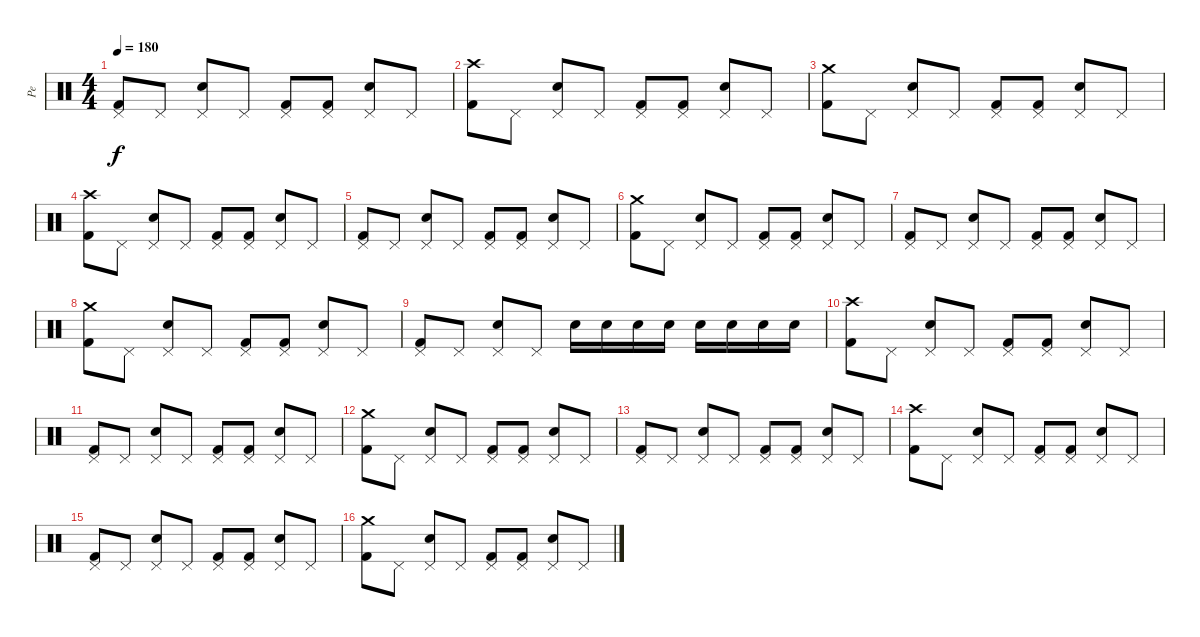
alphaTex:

\track ("Pe" "Pe") {instrument percussion}
\staff {score}
\articulation defaults
\ts (4 4)
\tempo 180
\clef neutral
\ks c
("Pedal Hi-Hat (hit)" "Kick (hit) 2").8{dy f} "Pedal Hi-Hat (hit)".8 ("Pedal Hi-Hat (hit)" "Electric Snare (hit)").8 "Pedal Hi-Hat (hit)".8 ("Pedal Hi-Hat (hit)" "Kick (hit) 2").8 ("Pedal Hi-Hat (hit)" "Kick (hit) 2").8 ("Pedal Hi-Hat (hit)" "Electric Snare (hit)").8 "Pedal Hi-Hat (hit)".8 |
("Crash high (hit)" "Kick (hit) 2").8 "Pedal Hi-Hat (hit)".8 ("Pedal Hi-Hat (hit)" "Electric Snare (hit)").8 "Pedal Hi-Hat (hit)".8 ("Pedal Hi-Hat (hit)" "Kick (hit) 2").8 ("Pedal Hi-Hat (hit)" "Kick (hit) 2").8 ("Pedal Hi-Hat (hit)" "Electric Snare (hit)").8 "Pedal Hi-Hat (hit)".8 |
("Crash medium (hit)" "Kick (hit) 2").8 "Pedal Hi-Hat (hit)".8 ("Pedal Hi-Hat (hit)" "Electric Snare (hit)").8 "Pedal Hi-Hat (hit)".8 ("Pedal Hi-Hat (hit)" "Kick (hit) 2").8 ("Pedal Hi-Hat (hit)" "Kick (hit) 2").8 ("Pedal Hi-Hat (hit)" "Electric Snare (hit)").8 "Pedal Hi-Hat (hit)".8 |
("Crash high (hit)" "Kick (hit) 2").8 "Pedal Hi-Hat (hit)".8 ("Pedal Hi-Hat (hit)" "Electric Snare (hit)").8 "Pedal Hi-Hat (hit)".8 ("Pedal Hi-Hat (hit)" "Kick (hit) 2").8 ("Pedal Hi-Hat (hit)" "Kick (hit) 2").8 ("Pedal Hi-Hat (hit)" "Electric Snare (hit)").8 "Pedal Hi-Hat (hit)".8 |
("Pedal Hi-Hat (hit)" "Kick (hit) 2").8 "Pedal Hi-Hat (hit)".8 ("Pedal Hi-Hat (hit)" "Electric Snare (hit)").8 "Pedal Hi-Hat (hit)".8 ("Pedal Hi-Hat (hit)" "Kick (hit) 2").8 ("Pedal Hi-Hat (hit)" "Kick (hit) 2").8 ("Pedal Hi-Hat (hit)" "Electric Snare (hit)").8 "Pedal Hi-Hat (hit)".8 |
("Crash medium (hit)" "Kick (hit) 2").8 "Pedal Hi-Hat (hit)".8 ("Pedal Hi-Hat (hit)" "Electric Snare (hit)").8 "Pedal Hi-Hat (hit)".8 ("Pedal Hi-Hat (hit)" "Kick (hit) 2").8 ("Pedal Hi-Hat (hit)" "Kick (hit) 2").8 ("Pedal Hi-Hat (hit)" "Electric Snare (hit)").8 "Pedal Hi-Hat (hit)".8 |
("Pedal Hi-Hat (hit)" "Kick (hit) 2").8 "Pedal Hi-Hat (hit)".8 ("Pedal Hi-Hat (hit)" "Electric Snare (hit)").8 "Pedal Hi-Hat (hit)".8 ("Pedal Hi-Hat (hit)" "Kick (hit) 2").8 ("Pedal Hi-Hat (hit)" "Kick (hit) 2").8 ("Pedal Hi-Hat (hit)" "Electric Snare (hit)").8 "Pedal Hi-Hat (hit)".8 |
("Crash medium (hit)" "Kick (hit) 2").8 "Pedal Hi-Hat (hit)".8 ("Pedal Hi-Hat (hit)" "Electric Snare (hit)").8 "Pedal Hi-Hat (hit)".8 ("Pedal Hi-Hat (hit)" "Kick (hit) 2").8 ("Pedal Hi-Hat (hit)" "Kick (hit) 2").8 ("Pedal Hi-Hat (hit)" "Electric Snare (hit)").8 "Pedal Hi-Hat (hit)".8 |
("Pedal Hi-Hat (hit)" "Kick (hit) 2").8 "Pedal Hi-Hat (hit)".8 ("Pedal Hi-Hat (hit)" "Electric Snare (hit)").8 "Pedal Hi-Hat (hit)".8 "Electric Snare (hit)".16 "Electric Snare (hit)".16 "Electric Snare (hit)".16 "Electric Snare (hit)".16 "Electric Snare (hit)".16 "Electric Snare (hit)".16 "Electric Snare (hit)".16 "Electric Snare (hit)".16 |
("Crash high (hit)" "Kick (hit) 2").8 "Pedal Hi-Hat (hit)".8 ("Pedal Hi-Hat (hit)" "Electric Snare (hit)").8 "Pedal Hi-Hat (hit)".8 ("Pedal Hi-Hat (hit)" "Kick (hit) 2").8 ("Pedal Hi-Hat (hit)" "Kick (hit) 2").8 ("Pedal Hi-Hat (hit)" "Electric Snare (hit)").8 "Pedal Hi-Hat (hit)".8 |
("Pedal Hi-Hat (hit)" "Kick (hit) 2").8 "Pedal Hi-Hat (hit)".8 ("Pedal Hi-Hat (hit)" "Electric Snare (hit)").8 "Pedal Hi-Hat (hit)".8 ("Pedal Hi-Hat (hit)" "Kick (hit) 2").8 ("Pedal Hi-Hat (hit)" "Kick (hit) 2").8 ("Pedal Hi-Hat (hit)" "Electric Snare (hit)").8 "Pedal Hi-Hat (hit)".8 |
("Crash medium (hit)" "Kick (hit) 2").8 "Pedal Hi-Hat (hit)".8 ("Pedal Hi-Hat (hit)" "Electric Snare (hit)").8 "Pedal Hi-Hat (hit)".8 ("Pedal Hi-Hat (hit)" "Kick (hit) 2").8 ("Pedal Hi-Hat (hit)" "Kick (hit) 2").8 ("Pedal Hi-Hat (hit)" "Electric Snare (hit)").8 "Pedal Hi-Hat (hit)".8 |
("Pedal Hi-Hat (hit)" "Kick (hit) 2").8 "Pedal Hi-Hat (hit)".8 ("Pedal Hi-Hat (hit)" "Electric Snare (hit)").8 "Pedal Hi-Hat (hit)".8 ("Pedal Hi-Hat (hit)" "Kick (hit) 2").8 ("Pedal Hi-Hat (hit)" "Kick (hit) 2").8 ("Pedal Hi-Hat (hit)" "Electric Snare (hit)").8 "Pedal Hi-Hat (hit)".8 |
("Crash high (hit)" "Kick (hit) 2").8 "Pedal Hi-Hat (hit)".8 ("Pedal Hi-Hat (hit)" "Electric Snare (hit)").8 "Pedal Hi-Hat (hit)".8 ("Pedal Hi-Hat (hit)" "Kick (hit) 2").8 ("Pedal Hi-Hat (hit)" "Kick (hit) 2").8 ("Pedal Hi-Hat (hit)" "Electric Snare (hit)").8 "Pedal Hi-Hat (hit)".8 |
("Pedal Hi-Hat (hit)" "Kick (hit) 2").8 "Pedal Hi-Hat (hit)".8 ("Pedal Hi-Hat (hit)" "Electric Snare (hit)").8 "Pedal Hi-Hat (hit)".8 ("Pedal Hi-Hat (hit)" "Kick (hit) 2").8 ("Pedal Hi-Hat (hit)" "Kick (hit) 2").8 ("Pedal Hi-Hat (hit)" "Electric Snare (hit)").8 "Pedal Hi-Hat (hit)".8 |
("Crash medium (hit)" "Kick (hit) 2").8 "Pedal Hi-Hat (hit)".8 ("Pedal Hi-Hat (hit)" "Electric Snare (hit)").8 "Pedal Hi-Hat (hit)".8 ("Pedal Hi-Hat (hit)" "Kick (hit) 2").8 ("Pedal Hi-Hat (hit)" "Kick (hit) 2").8 ("Pedal Hi-Hat (hit)" "Electric Snare (hit)").8 "Pedal Hi-Hat (hit)".8
